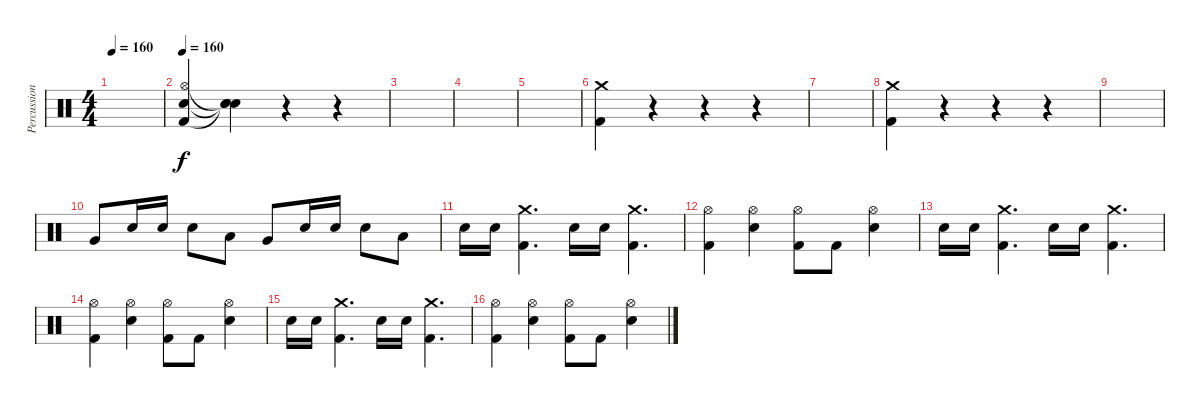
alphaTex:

\track ("Percussion" "Percussion") {instrument percussion}
\staff {score}
\articulation defaults
\ts (4 4)
\tempo 160
\clef neutral
\ks c
|
\tempo 160
("Kick (hit) 2" "Hi-Hat (open)" "Snare (hit) 2").4 ("Snare (hit)"{t} "Snare (hit)"{t} "Snare (hit)"{t}).4 r.4 r.4 |
|
|
|
("Crash medium (hit)" "Kick (hit) 2").4 r.4 r.4 r.4 |
|
("Crash medium (hit)" "Kick (hit) 2").4 r.4 r.4 r.4 |
|
"Very Low Tom (hit)".8 "Snare (hit) 2".16 "Snare (hit) 2".16 "Snare (hit) 2".8 "Low Floor Tom (hit)".8 "Very Low Tom (hit)".8 "Snare (hit) 2".16 "Snare (hit) 2".16 "Snare (hit) 2".8 "Low Floor Tom (hit)".8 |
"Snare (hit) 2".16 "Snare (hit) 2".16 ("Crash medium (hit)" "Kick (hit) 2").4{d} "Snare (hit) 2".16 "Snare (hit) 2".16 ("Crash medium (hit)" "Kick (hit) 2").4{d} |
("Hi-Hat (open)" "Kick (hit) 2").4 ("Hi-Hat (open)" "Snare (hit) 2").4 ("Hi-Hat (open)" "Kick (hit) 2").8 "Kick (hit) 2".8 ("Hi-Hat (open)" "Snare (hit) 2").4 |
"Snare (hit) 2".16 "Snare (hit) 2".16 ("Crash medium (hit)" "Kick (hit) 2").4{d} "Snare (hit) 2".16 "Snare (hit) 2".16 ("Crash medium (hit)" "Kick (hit) 2").4{d} |
("Hi-Hat (open)" "Kick (hit) 2").4 ("Hi-Hat (open)" "Snare (hit) 2").4 ("Hi-Hat (open)" "Kick (hit) 2").8 "Kick (hit) 2".8 ("Hi-Hat (open)" "Snare (hit) 2").4 |
"Snare (hit) 2".16 "Snare (hit) 2".16 ("Crash medium (hit)" "Kick (hit) 2").4{d} "Snare (hit) 2".16 "Snare (hit) 2".16 ("Crash medium (hit)" "Kick (hit) 2").4{d} |
("Hi-Hat (open)" "Kick (hit) 2").4 ("Hi-Hat (open)" "Snare (hit) 2").4 ("Hi-Hat (open)" "Kick (hit) 2").8 "Kick (hit) 2".8 ("Hi-Hat (open)" "Snare (hit) 2").4
